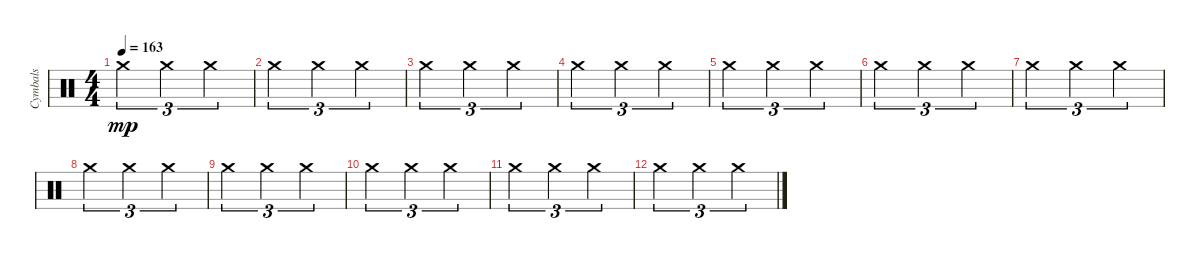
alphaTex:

\track ("Cymbals" "Cymbals") {instrument percussion}
\staff {score}
\articulation defaults
\ts (4 4)
\tempo 163
\clef neutral
\ks c "Crash medium (hit)".2{tu (3 2) dy mp volume 9 balance 0} "Crash medium (hit)".2{tu (3 2) balance 1} "Crash medium (hit)".2{tu (3 2) balance 2}
|
"Crash medium (hit)".2{tu (3 2) volume 8 balance 3} "Crash medium (hit)".2{tu (3 2) balance 4} "Crash medium (hit)".2{tu (3 2) balance 5} |
"Crash medium (hit)".2{tu (3 2) volume 7 balance 7} "Crash medium (hit)".2{tu (3 2) balance 9} "Crash medium (hit)".2{tu (3 2) balance 10} |
"Crash medium (hit)".2{tu (3 2) volume 6 balance 11} "Crash medium (hit)".2{tu (3 2) balance 12} "Crash medium (hit)".2{tu (3 2) balance 13} |
"Crash medium (hit)".2{tu (3 2) volume 5 balance 16} "Crash medium (hit)".2{tu (3 2) balance 13} "Crash medium (hit)".2{tu (3 2) balance 12} |
"Crash medium (hit)".2{tu (3 2) volume 4 balance 12} "Crash medium (hit)".2{tu (3 2) balance 11} "Crash medium (hit)".2{tu (3 2) balance 10} |
"Crash medium (hit)".2{tu (3 2) volume 3 balance 7} "Crash medium (hit)".2{tu (3 2) balance 6} "Crash medium (hit)".2{tu (3 2) balance 5} |
"Crash medium (hit)".2{tu (3 2) volume 2 balance 4} "Crash medium (hit)".2{tu (3 2) balance 2} "Crash medium (hit)".2{tu (3 2) balance 1} |
"Crash medium (hit)".2{tu (3 2) volume 1 balance 0} "Crash medium (hit)".2{tu (3 2) balance 1} "Crash medium (hit)".2{tu (3 2) balance 2} |
"Crash medium (hit)".2{tu (3 2) volume 0 balance 3} "Crash medium (hit)".2{tu (3 2) balance 4} "Crash medium (hit)".2{tu (3 2) balance 5} |
"Crash medium (hit)".2{tu (3 2) balance 7} "Crash medium (hit)".2{tu (3 2) balance 9} "Crash medium (hit)".2{tu (3 2) balance 10} |
"Crash medium (hit)".2{tu (3 2) balance 11} "Crash medium (hit)".2{tu (3 2) balance 12} "Crash medium (hit)".2{tu (3 2) balance 13}
